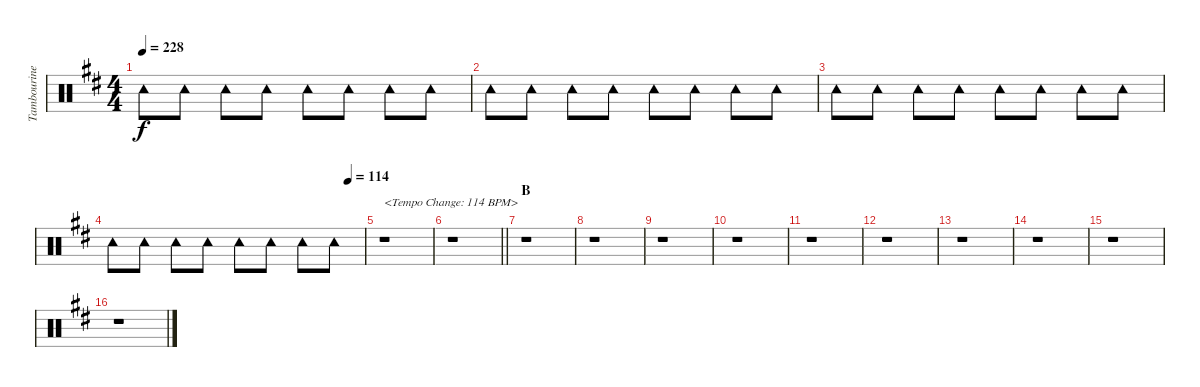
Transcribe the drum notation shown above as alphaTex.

\track ("Tambourine" "Tambourine") {instrument percussion}
\staff {score}
\articulation defaults
\ts (4 4)
\tempo 228
\clef neutral
\ks d "Tambourine (hit)".8{dy f} "Tambourine (hit)".8 "Tambourine (hit)".8 "Tambourine (hit)".8 "Tambourine (hit)".8 "Tambourine (hit)".8 "Tambourine (hit)".8 "Tambourine (hit)".8
|
"Tambourine (hit)".8 "Tambourine (hit)".8 "Tambourine (hit)".8 "Tambourine (hit)".8 "Tambourine (hit)".8 "Tambourine (hit)".8 "Tambourine (hit)".8 "Tambourine (hit)".8 |
"Tambourine (hit)".8 "Tambourine (hit)".8 "Tambourine (hit)".8 "Tambourine (hit)".8 "Tambourine (hit)".8 "Tambourine (hit)".8 "Tambourine (hit)".8 "Tambourine (hit)".8 |
\tempo (114 0.9375)
"Tambourine (hit)".8 "Tambourine (hit)".8 "Tambourine (hit)".8 "Tambourine (hit)".8 "Tambourine (hit)".8 "Tambourine (hit)".8 "Tambourine (hit)".8 "Tambourine (hit)".8 |
r.1{txt "<Tempo Change: 114 BPM>"} |
\barLineRight lightlight
r.1 |
\section ("" "B")
r.1 |
r.1 |
r.1 |
r.1 |
r.1 |
r.1 |
r.1 |
r.1 |
r.1 |
r.1
